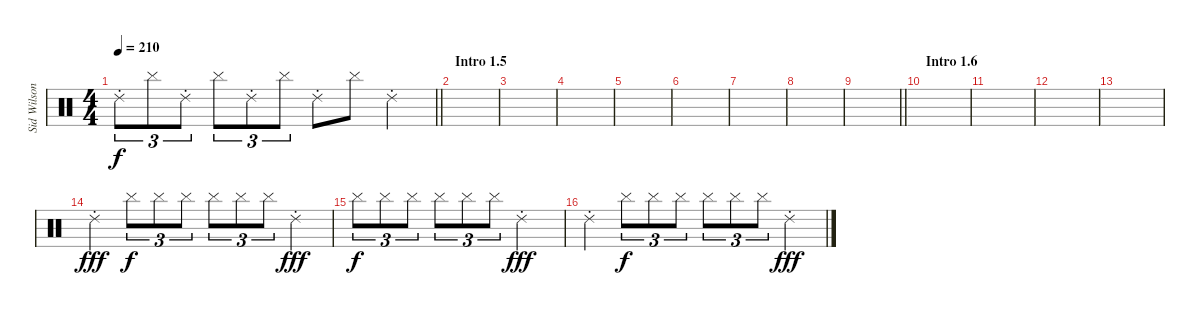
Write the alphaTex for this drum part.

\track ("Sid Wilson" "Sid Wilson") {instrument percussion}
\staff {score}
\articulation defaults
\ts (4 4)
\tempo 210
\clef neutral
\barLineRight lightlight
\ks c "Ride (choke) 2".8{tu (3 2) dy f} "Cymbal (hit)".8{tu (3 2)} "Ride (choke) 2".8{tu (3 2)} "Cymbal (hit)".8{tu (3 2)} "Ride (choke) 2".8{tu (3 2)} "Cymbal (hit)".8{tu (3 2)} "Ride (choke) 2".8 "Cymbal (hit)".8 "Ride (choke) 2".4
|
\section ("" "Intro 1.5")
|
|
|
|
|
|
|
\barLineRight lightlight
|
\section ("" "Intro 1.6")
|
|
|
|
"Ride (choke) 2".4{dy fff} "Cymbal (hit)".8{tu (3 2) dy f} "Cymbal (hit)".8{tu (3 2)} "Cymbal (hit)".8{tu (3 2)} "Cymbal (hit)".8{tu (3 2)} "Cymbal (hit)".8{tu (3 2)} "Cymbal (hit)".8{tu (3 2)} "Ride (choke) 2".4{dy fff} |
"Cymbal (hit)".8{tu (3 2) dy f} "Cymbal (hit)".8{tu (3 2)} "Cymbal (hit)".8{tu (3 2)} "Cymbal (hit)".8{tu (3 2)} "Cymbal (hit)".8{tu (3 2)} "Cymbal (hit)".8{tu (3 2)} "Ride (choke) 2".2{dy fff} |
"Ride (choke) 2".4 "Cymbal (hit)".8{tu (3 2) dy f} "Cymbal (hit)".8{tu (3 2)} "Cymbal (hit)".8{tu (3 2)} "Cymbal (hit)".8{tu (3 2)} "Cymbal (hit)".8{tu (3 2)} "Cymbal (hit)".8{tu (3 2)} "Ride (choke) 2".4{dy fff}
